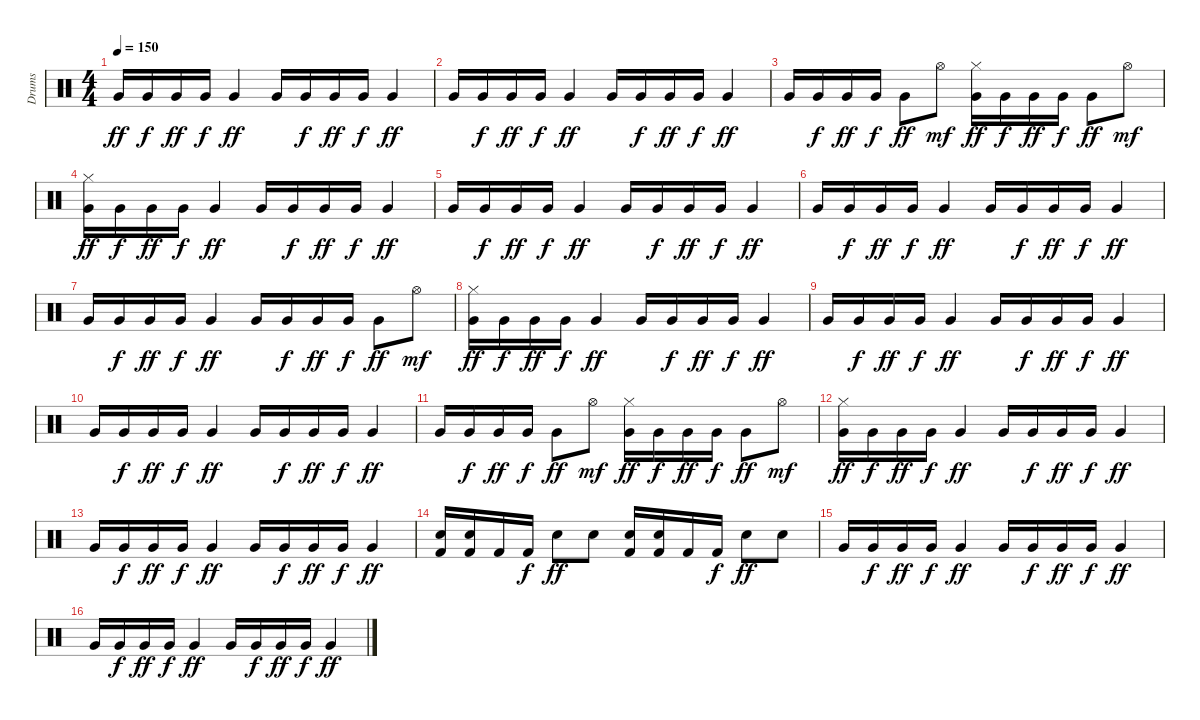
\track ("Drums" "Drums") {instrument percussion}
\staff {score}
\articulation defaults
\ts (4 4)
\tempo 150
\clef neutral
\ks c "Very Low Tom (hit)".16{dy ff} "Very Low Tom (hit)".16{dy f} "Very Low Tom (hit)".16{dy ff} "Very Low Tom (hit)".16{dy f} "Very Low Tom (hit)".4{dy ff} "Very Low Tom (hit)".16 "Very Low Tom (hit)".16{dy f} "Very Low Tom (hit)".16{dy ff} "Very Low Tom (hit)".16{dy f} "Very Low Tom (hit)".4{dy ff}
|
"Very Low Tom (hit)".16 "Very Low Tom (hit)".16{dy f} "Very Low Tom (hit)".16{dy ff} "Very Low Tom (hit)".16{dy f} "Very Low Tom (hit)".4{dy ff} "Very Low Tom (hit)".16 "Very Low Tom (hit)".16{dy f} "Very Low Tom (hit)".16{dy ff} "Very Low Tom (hit)".16{dy f} "Very Low Tom (hit)".4{dy ff} |
"Very Low Tom (hit)".16 "Very Low Tom (hit)".16{dy f} "Very Low Tom (hit)".16{dy ff} "Very Low Tom (hit)".16{dy f} "Very Low Tom (hit)".8{dy ff} "Hi-Hat (open)".8{dy mf} ("Hi-Hat (closed)" "Very Low Tom (hit)").16{dy ff} "Very Low Tom (hit)".16{dy f} "Very Low Tom (hit)".16{dy ff} "Very Low Tom (hit)".16{dy f} "Very Low Tom (hit)".8{dy ff} "Hi-Hat (open)".8{dy mf} |
("Hi-Hat (closed)" "Very Low Tom (hit)").16{dy ff} "Very Low Tom (hit)".16{dy f} "Very Low Tom (hit)".16{dy ff} "Very Low Tom (hit)".16{dy f} "Very Low Tom (hit)".4{dy ff} "Very Low Tom (hit)".16 "Very Low Tom (hit)".16{dy f} "Very Low Tom (hit)".16{dy ff} "Very Low Tom (hit)".16{dy f} "Very Low Tom (hit)".4{dy ff} |
"Very Low Tom (hit)".16 "Very Low Tom (hit)".16{dy f} "Very Low Tom (hit)".16{dy ff} "Very Low Tom (hit)".16{dy f} "Very Low Tom (hit)".4{dy ff} "Very Low Tom (hit)".16 "Very Low Tom (hit)".16{dy f} "Very Low Tom (hit)".16{dy ff} "Very Low Tom (hit)".16{dy f} "Very Low Tom (hit)".4{dy ff} |
"Very Low Tom (hit)".16 "Very Low Tom (hit)".16{dy f} "Very Low Tom (hit)".16{dy ff} "Very Low Tom (hit)".16{dy f} "Very Low Tom (hit)".4{dy ff} "Very Low Tom (hit)".16 "Very Low Tom (hit)".16{dy f} "Very Low Tom (hit)".16{dy ff} "Very Low Tom (hit)".16{dy f} "Very Low Tom (hit)".4{dy ff} |
"Very Low Tom (hit)".16 "Very Low Tom (hit)".16{dy f} "Very Low Tom (hit)".16{dy ff} "Very Low Tom (hit)".16{dy f} "Very Low Tom (hit)".4{dy ff} "Very Low Tom (hit)".16 "Very Low Tom (hit)".16{dy f} "Very Low Tom (hit)".16{dy ff} "Very Low Tom (hit)".16{dy f} "Very Low Tom (hit)".8{dy ff} "Hi-Hat (open)".8{dy mf} |
("Hi-Hat (closed)" "Very Low Tom (hit)").16{dy ff} "Very Low Tom (hit)".16{dy f} "Very Low Tom (hit)".16{dy ff} "Very Low Tom (hit)".16{dy f} "Very Low Tom (hit)".4{dy ff} "Very Low Tom (hit)".16 "Very Low Tom (hit)".16{dy f} "Very Low Tom (hit)".16{dy ff} "Very Low Tom (hit)".16{dy f} "Very Low Tom (hit)".4{dy ff} |
"Very Low Tom (hit)".16 "Very Low Tom (hit)".16{dy f} "Very Low Tom (hit)".16{dy ff} "Very Low Tom (hit)".16{dy f} "Very Low Tom (hit)".4{dy ff} "Very Low Tom (hit)".16 "Very Low Tom (hit)".16{dy f} "Very Low Tom (hit)".16{dy ff} "Very Low Tom (hit)".16{dy f} "Very Low Tom (hit)".4{dy ff} |
"Very Low Tom (hit)".16 "Very Low Tom (hit)".16{dy f} "Very Low Tom (hit)".16{dy ff} "Very Low Tom (hit)".16{dy f} "Very Low Tom (hit)".4{dy ff} "Very Low Tom (hit)".16 "Very Low Tom (hit)".16{dy f} "Very Low Tom (hit)".16{dy ff} "Very Low Tom (hit)".16{dy f} "Very Low Tom (hit)".4{dy ff} |
"Very Low Tom (hit)".16 "Very Low Tom (hit)".16{dy f} "Very Low Tom (hit)".16{dy ff} "Very Low Tom (hit)".16{dy f} "Very Low Tom (hit)".8{dy ff} "Hi-Hat (open)".8{dy mf} ("Hi-Hat (closed)" "Very Low Tom (hit)").16{dy ff} "Very Low Tom (hit)".16{dy f} "Very Low Tom (hit)".16{dy ff} "Very Low Tom (hit)".16{dy f} "Very Low Tom (hit)".8{dy ff} "Hi-Hat (open)".8{dy mf} |
("Hi-Hat (closed)" "Very Low Tom (hit)").16{dy ff} "Very Low Tom (hit)".16{dy f} "Very Low Tom (hit)".16{dy ff} "Very Low Tom (hit)".16{dy f} "Very Low Tom (hit)".4{dy ff} "Very Low Tom (hit)".16 "Very Low Tom (hit)".16{dy f} "Very Low Tom (hit)".16{dy ff} "Very Low Tom (hit)".16{dy f} "Very Low Tom (hit)".4{dy ff} |
"Very Low Tom (hit)".16 "Very Low Tom (hit)".16{dy f} "Very Low Tom (hit)".16{dy ff} "Very Low Tom (hit)".16{dy f} "Very Low Tom (hit)".4{dy ff} "Very Low Tom (hit)".16 "Very Low Tom (hit)".16{dy f} "Very Low Tom (hit)".16{dy ff} "Very Low Tom (hit)".16{dy f} "Very Low Tom (hit)".4{dy ff} |
("Snare (hit) 2" "Kick (hit) 2").16 ("Kick (hit) 2" "Snare (hit) 2").16 "Kick (hit) 2".16 "Kick (hit) 2".16{dy f} "Snare (hit) 2".8{dy ff} "Snare (hit) 2".8 ("Snare (hit) 2" "Kick (hit) 2").16 ("Kick (hit) 2" "Snare (hit) 2").16 "Kick (hit) 2".16 "Kick (hit) 2".16{dy f} "Snare (hit) 2".8{dy ff} "Snare (hit) 2".8 |
"Very Low Tom (hit)".16 "Very Low Tom (hit)".16{dy f} "Very Low Tom (hit)".16{dy ff} "Very Low Tom (hit)".16{dy f} "Very Low Tom (hit)".4{dy ff} "Very Low Tom (hit)".16 "Very Low Tom (hit)".16{dy f} "Very Low Tom (hit)".16{dy ff} "Very Low Tom (hit)".16{dy f} "Very Low Tom (hit)".4{dy ff} |
"Very Low Tom (hit)".16 "Very Low Tom (hit)".16{dy f} "Very Low Tom (hit)".16{dy ff} "Very Low Tom (hit)".16{dy f} "Very Low Tom (hit)".4{dy ff} "Very Low Tom (hit)".16 "Very Low Tom (hit)".16{dy f} "Very Low Tom (hit)".16{dy ff} "Very Low Tom (hit)".16{dy f} "Very Low Tom (hit)".4{dy ff}
